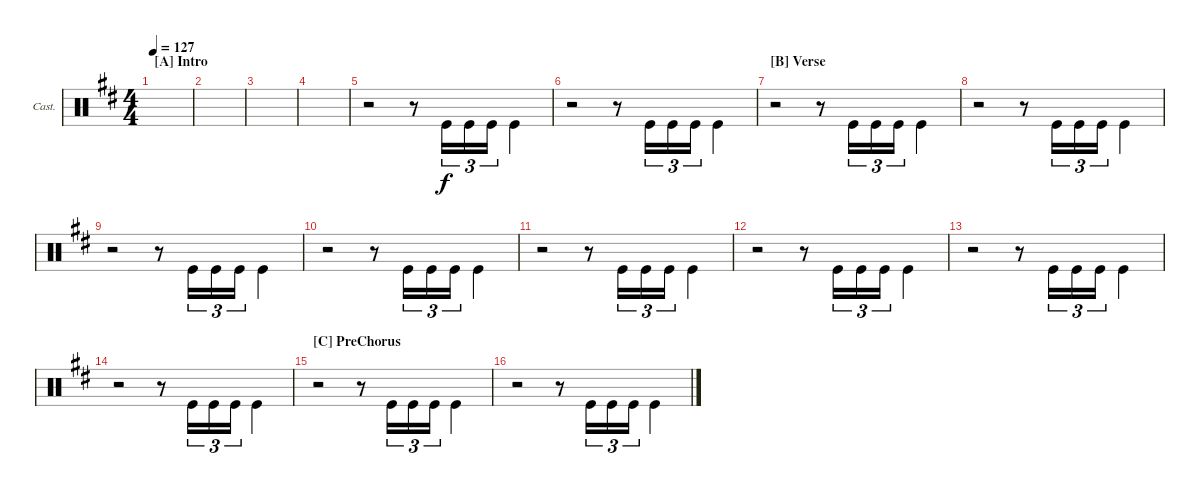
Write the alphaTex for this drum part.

\bracketExtendMode groupsimilarinstruments
\firstSystemTrackNameOrientation horizontal
\otherSystemsTrackNameOrientation horizontal
\track ("Castanets" "Cast.") {instrument percussion}
\staff {score}
\articulation defaults
\ts (4 4)
\beaming (8 2 2 2 2)
\section ("A" "Intro")
\tempo 127
\clef neutral
\scale
0.679775
\ks d
|
\scale
0.320225 |
\scale
0.5 |
\scale
0.5 |
\scale
0.5 r.2{beam invert} r.8{beam invert} "Kick (hit)".16{tu (3 2) beam invert} "Kick (hit)".16{tu (3 2)} "Kick (hit)".16{tu (3 2)} "Kick (hit)".4{beam invert} |
\scale
0.5 r.2{beam invert} r.8{beam invert} "Kick (hit)".16{tu (3 2) beam invert} "Kick (hit)".16{tu (3 2)} "Kick (hit)".16{tu (3 2)} "Kick (hit)".4{beam invert} |
\section ("B" "Verse")
\scale
0.5 r.2{beam invert} r.8{beam invert} "Kick (hit)".16{tu (3 2) beam invert} "Kick (hit)".16{tu (3 2)} "Kick (hit)".16{tu (3 2)} "Kick (hit)".4{beam invert} |
\scale
0.5 r.2{beam invert} r.8{beam invert} "Kick (hit)".16{tu (3 2) beam invert} "Kick (hit)".16{tu (3 2)} "Kick (hit)".16{tu (3 2)} "Kick (hit)".4{beam invert} |
\scale
0.5 r.2{beam invert} r.8{beam invert} "Kick (hit)".16{tu (3 2) beam invert} "Kick (hit)".16{tu (3 2)} "Kick (hit)".16{tu (3 2)} "Kick (hit)".4{beam invert} |
\scale
0.5 r.2{beam invert} r.8{beam invert} "Kick (hit)".16{tu (3 2) beam invert} "Kick (hit)".16{tu (3 2)} "Kick (hit)".16{tu (3 2)} "Kick (hit)".4{beam invert} |
\scale
0.5 r.2{beam invert} r.8{beam invert} "Kick (hit)".16{tu (3 2) beam invert} "Kick (hit)".16{tu (3 2)} "Kick (hit)".16{tu (3 2)} "Kick (hit)".4{beam invert} |
\scale
0.5 r.2{beam invert} r.8{beam invert} "Kick (hit)".16{tu (3 2) beam invert} "Kick (hit)".16{tu (3 2)} "Kick (hit)".16{tu (3 2)} "Kick (hit)".4{beam invert} |
\scale
0.5 r.2{beam invert} r.8{beam invert} "Kick (hit)".16{tu (3 2) beam invert} "Kick (hit)".16{tu (3 2)} "Kick (hit)".16{tu (3 2)} "Kick (hit)".4{beam invert} |
\scale
0.5 r.2{beam invert} r.8{beam invert} "Kick (hit)".16{tu (3 2) beam invert} "Kick (hit)".16{tu (3 2)} "Kick (hit)".16{tu (3 2)} "Kick (hit)".4{beam invert} |
\section ("C" "PreChorus")
\scale
0.5 r.2{beam invert} r.8{beam invert} "Kick (hit)".16{tu (3 2) beam invert} "Kick (hit)".16{tu (3 2)} "Kick (hit)".16{tu (3 2)} "Kick (hit)".4{beam invert} |
\scale
0.5 r.2{beam invert} r.8{beam invert} "Kick (hit)".16{tu (3 2) beam invert} "Kick (hit)".16{tu (3 2)} "Kick (hit)".16{tu (3 2)} "Kick (hit)".4{beam invert}
